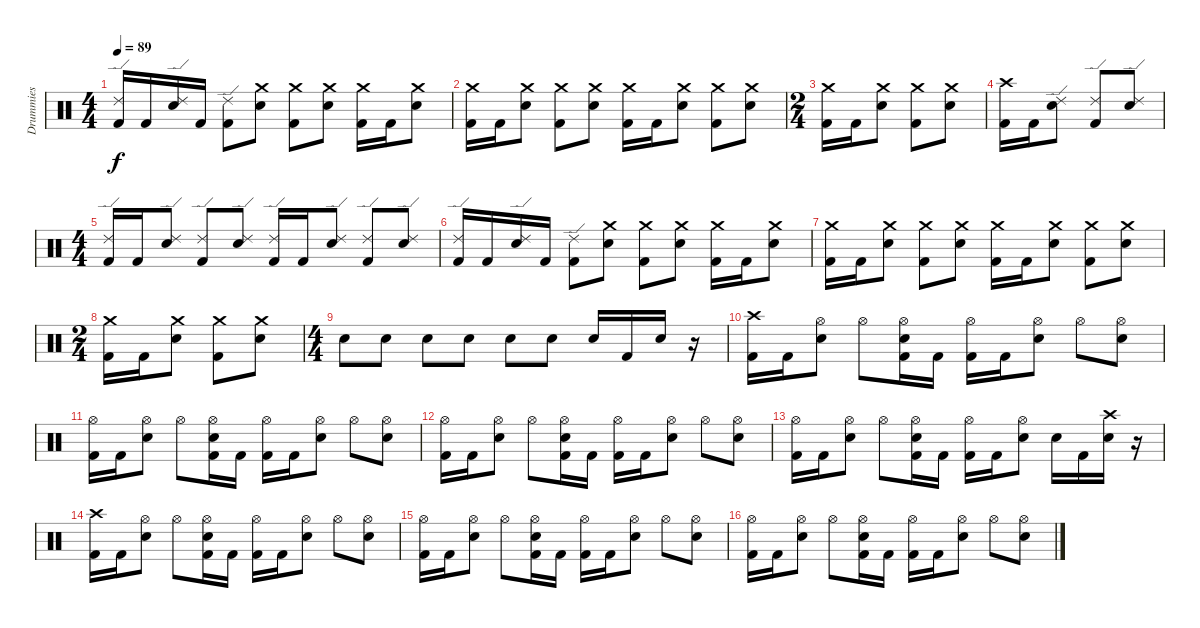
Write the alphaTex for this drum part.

\track ("Drummies" "Drummies") {instrument percussion}
\staff {score}
\articulation defaults
\ts (4 4)
\tempo 89
\clef neutral
\ks c
("Ride (edge) 2" "Kick (hit) 2").16{dy f} "Kick (hit) 2".16 ("Ride (edge) 2" "Electric Snare (hit)").16 "Kick (hit) 2".16 ("Ride (edge) 2" "Kick (hit) 2").8 ("Crash medium (hit)" "Electric Snare (hit)").8 ("Crash medium (hit)" "Kick (hit) 2").8 ("Crash medium (hit)" "Electric Snare (hit)").8 ("Crash medium (hit)" "Kick (hit) 2").16 "Kick (hit) 2".16 ("Crash medium (hit)" "Electric Snare (hit)").8 |
("Crash medium (hit)" "Kick (hit) 2").16 "Kick (hit) 2".16 ("Crash medium (hit)" "Electric Snare (hit)").8 ("Crash medium (hit)" "Kick (hit) 2").8 ("Crash medium (hit)" "Electric Snare (hit)").8 ("Crash medium (hit)" "Kick (hit) 2").16 "Kick (hit) 2".16 ("Crash medium (hit)" "Electric Snare (hit)").8 ("Crash medium (hit)" "Kick (hit) 2").8 ("Crash medium (hit)" "Electric Snare (hit)").8 |
\ts (2 4)
("Crash medium (hit)" "Kick (hit) 2").16 "Kick (hit) 2".16 ("Crash medium (hit)" "Electric Snare (hit)").8 ("Crash medium (hit)" "Kick (hit) 2").8 ("Crash medium (hit)" "Electric Snare (hit)").8 |
("Crash high (hit)" "Kick (hit) 2").16 "Kick (hit) 2".16 ("Ride (edge) 2" "Electric Snare (hit)").8 ("Ride (edge) 2" "Kick (hit) 2").8 ("Ride (edge) 2" "Electric Snare (hit)").8 |
\ts (4 4)
("Ride (edge) 2" "Kick (hit) 2").16 "Kick (hit) 2".16 ("Ride (edge) 2" "Electric Snare (hit)").8 ("Ride (edge) 2" "Kick (hit) 2").8 ("Ride (edge) 2" "Electric Snare (hit)").8 ("Ride (edge) 2" "Kick (hit) 2").16 "Kick (hit) 2".16 ("Ride (edge) 2" "Electric Snare (hit)").8 ("Ride (edge) 2" "Kick (hit) 2").8 ("Ride (edge) 2" "Electric Snare (hit)").8 |
("Ride (edge) 2" "Kick (hit) 2").16 "Kick (hit) 2".16 ("Ride (edge) 2" "Electric Snare (hit)").16 "Kick (hit) 2".16 ("Ride (edge) 2" "Kick (hit) 2").8 ("Crash medium (hit)" "Electric Snare (hit)").8 ("Crash medium (hit)" "Kick (hit) 2").8 ("Crash medium (hit)" "Electric Snare (hit)").8 ("Crash medium (hit)" "Kick (hit) 2").16 "Kick (hit) 2".16 ("Crash medium (hit)" "Electric Snare (hit)").8 |
("Crash medium (hit)" "Kick (hit) 2").16 "Kick (hit) 2".16 ("Crash medium (hit)" "Electric Snare (hit)").8 ("Crash medium (hit)" "Kick (hit) 2").8 ("Crash medium (hit)" "Electric Snare (hit)").8 ("Crash medium (hit)" "Kick (hit) 2").16 "Kick (hit) 2".16 ("Crash medium (hit)" "Electric Snare (hit)").8 ("Crash medium (hit)" "Kick (hit) 2").8 ("Crash medium (hit)" "Electric Snare (hit)").8 |
\ts (2 4)
("Crash medium (hit)" "Kick (hit) 2").16 "Kick (hit) 2".16 ("Crash medium (hit)" "Electric Snare (hit)").8 ("Crash medium (hit)" "Kick (hit) 2").8 ("Crash medium (hit)" "Electric Snare (hit)").8 |
\ts (4 4)
"Electric Snare (hit)".8 "Electric Snare (hit)".8 "Electric Snare (hit)".8 "Electric Snare (hit)".8 "Electric Snare (hit)".8 "Electric Snare (hit)".8 "Electric Snare (hit)".16 "Kick (hit) 2".16 "Electric Snare (hit)".16 r.16 |
("Crash high (hit)" "Kick (hit) 2").16 "Kick (hit) 2".16 ("Hi-Hat (open)" "Electric Snare (hit)").8 "Hi-Hat (open)".8 ("Hi-Hat (open)" "Kick (hit) 2" "Electric Snare (hit)").16 "Kick (hit) 2".16 ("Hi-Hat (open)" "Kick (hit) 2").16 "Kick (hit) 2".16 ("Hi-Hat (open)" "Electric Snare (hit)").8 "Hi-Hat (open)".8 ("Hi-Hat (open)" "Electric Snare (hit)").8 |
("Hi-Hat (open)" "Kick (hit) 2").16 "Kick (hit) 2".16 ("Hi-Hat (open)" "Electric Snare (hit)").8 "Hi-Hat (open)".8 ("Hi-Hat (open)" "Kick (hit) 2" "Electric Snare (hit)").16 "Kick (hit) 2".16 ("Hi-Hat (open)" "Kick (hit) 2").16 "Kick (hit) 2".16 ("Hi-Hat (open)" "Electric Snare (hit)").8 "Hi-Hat (open)".8 ("Hi-Hat (open)" "Electric Snare (hit)").8 |
("Hi-Hat (open)" "Kick (hit) 2").16 "Kick (hit) 2".16 ("Hi-Hat (open)" "Electric Snare (hit)").8 "Hi-Hat (open)".8 ("Hi-Hat (open)" "Kick (hit) 2" "Electric Snare (hit)").16 "Kick (hit) 2".16 ("Hi-Hat (open)" "Kick (hit) 2").16 "Kick (hit) 2".16 ("Hi-Hat (open)" "Electric Snare (hit)").8 "Hi-Hat (open)".8 ("Hi-Hat (open)" "Electric Snare (hit)").8 |
("Hi-Hat (open)" "Kick (hit) 2").16 "Kick (hit) 2".16 ("Hi-Hat (open)" "Electric Snare (hit)").8 "Hi-Hat (open)".8 ("Hi-Hat (open)" "Kick (hit) 2" "Electric Snare (hit)").16 "Kick (hit) 2".16 ("Hi-Hat (open)" "Kick (hit) 2").16 "Kick (hit) 2".16 ("Hi-Hat (open)" "Electric Snare (hit)").8 "Electric Snare (hit)".16 "Kick (hit) 2".16 ("Crash high (hit)" "Electric Snare (hit)").16 r.16 |
("Crash high (hit)" "Kick (hit) 2").16 "Kick (hit) 2".16 ("Hi-Hat (open)" "Electric Snare (hit)").8 "Hi-Hat (open)".8 ("Hi-Hat (open)" "Kick (hit) 2" "Electric Snare (hit)").16 "Kick (hit) 2".16 ("Hi-Hat (open)" "Kick (hit) 2").16 "Kick (hit) 2".16 ("Hi-Hat (open)" "Electric Snare (hit)").8 "Hi-Hat (open)".8 ("Hi-Hat (open)" "Electric Snare (hit)").8 |
("Hi-Hat (open)" "Kick (hit) 2").16 "Kick (hit) 2".16 ("Hi-Hat (open)" "Electric Snare (hit)").8 "Hi-Hat (open)".8 ("Hi-Hat (open)" "Kick (hit) 2" "Electric Snare (hit)").16 "Kick (hit) 2".16 ("Hi-Hat (open)" "Kick (hit) 2").16 "Kick (hit) 2".16 ("Hi-Hat (open)" "Electric Snare (hit)").8 "Hi-Hat (open)".8 ("Hi-Hat (open)" "Electric Snare (hit)").8 |
("Hi-Hat (open)" "Kick (hit) 2").16 "Kick (hit) 2".16 ("Hi-Hat (open)" "Electric Snare (hit)").8 "Hi-Hat (open)".8 ("Hi-Hat (open)" "Kick (hit) 2" "Electric Snare (hit)").16 "Kick (hit) 2".16 ("Hi-Hat (open)" "Kick (hit) 2").16 "Kick (hit) 2".16 ("Hi-Hat (open)" "Electric Snare (hit)").8 "Hi-Hat (open)".8 ("Hi-Hat (open)" "Electric Snare (hit)").8
